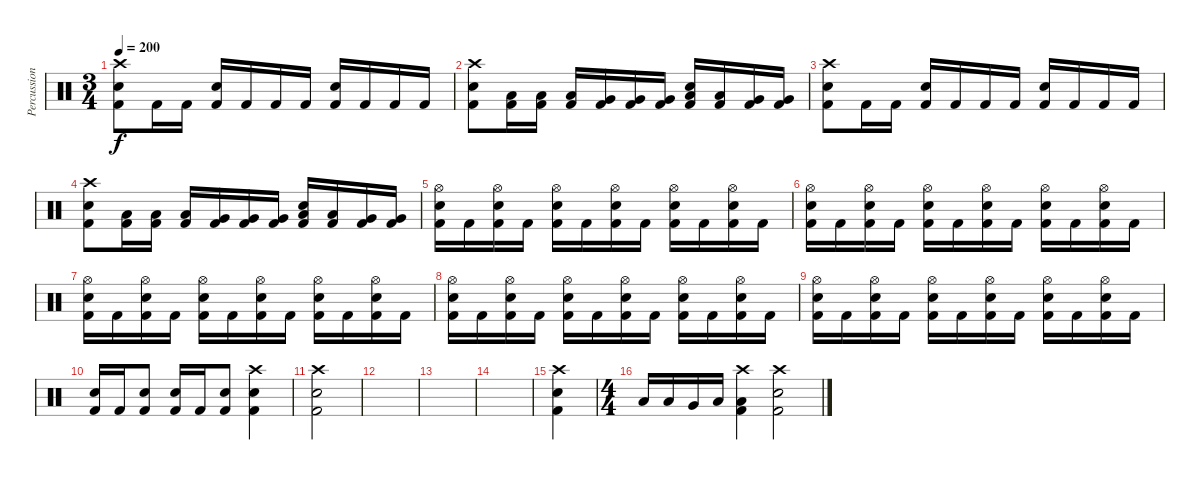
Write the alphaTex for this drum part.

\track ("Percussion" "Percussion") {instrument percussion}
\staff {score}
\articulation defaults
\ts (3 4)
\tempo 200
\clef neutral
\ks c
("Crash high (hit)" "Snare (hit) 2" "Kick (hit) 2").8{dy f} "Kick (hit) 2".16 "Kick (hit) 2".16 ("Snare (hit) 2" "Kick (hit) 2").16 "Kick (hit) 2".16 "Kick (hit) 2".16 "Kick (hit) 2".16 ("Snare (hit) 2" "Kick (hit) 2").16 "Kick (hit) 2".16 "Kick (hit) 2".16 "Kick (hit) 2".16 |
("Crash high (hit)" "Snare (hit) 2" "Kick (hit) 2").8 ("Low Tom (hit)" "Kick (hit) 2").16 ("Low Tom (hit)" "Kick (hit) 2").16 ("Low Tom (hit)" "Kick (hit) 2").16 ("Very Low Tom (hit)" "Kick (hit) 2").16 ("Very Low Tom (hit)" "Kick (hit) 2").16 ("Very Low Tom (hit)" "Kick (hit) 2").16 ("Low Tom (hit)" "Snare (hit) 2" "Kick (hit) 2").16 ("Low Tom (hit)" "Kick (hit) 2").16 ("Very Low Tom (hit)" "Kick (hit) 2").16 ("Very Low Tom (hit)" "Kick (hit) 2").16 |
("Crash high (hit)" "Snare (hit) 2" "Kick (hit) 2").8 "Kick (hit) 2".16 "Kick (hit) 2".16 ("Snare (hit) 2" "Kick (hit) 2").16 "Kick (hit) 2".16 "Kick (hit) 2".16 "Kick (hit) 2".16 ("Snare (hit) 2" "Kick (hit) 2").16 "Kick (hit) 2".16 "Kick (hit) 2".16 "Kick (hit) 2".16 |
("Crash high (hit)" "Snare (hit) 2" "Kick (hit) 2").8 ("Low Tom (hit)" "Kick (hit) 2").16 ("Low Tom (hit)" "Kick (hit) 2").16 ("Low Tom (hit)" "Kick (hit) 2").16 ("Very Low Tom (hit)" "Kick (hit) 2").16 ("Very Low Tom (hit)" "Kick (hit) 2").16 ("Very Low Tom (hit)" "Kick (hit) 2").16 ("Low Tom (hit)" "Snare (hit) 2" "Kick (hit) 2").16 ("Low Tom (hit)" "Kick (hit) 2").16 ("Very Low Tom (hit)" "Kick (hit) 2").16 ("Very Low Tom (hit)" "Kick (hit) 2").16 |
("Hi-Hat (open)" "Snare (hit) 2" "Kick (hit) 2").16 "Kick (hit) 2".16 ("Hi-Hat (open)" "Snare (hit) 2" "Kick (hit) 2").16 "Kick (hit) 2".16 ("Hi-Hat (open)" "Snare (hit) 2" "Kick (hit) 2").16 "Kick (hit) 2".16 ("Hi-Hat (open)" "Snare (hit) 2" "Kick (hit) 2").16 "Kick (hit) 2".16 ("Hi-Hat (open)" "Snare (hit) 2" "Kick (hit) 2").16 "Kick (hit) 2".16 ("Hi-Hat (open)" "Snare (hit) 2" "Kick (hit) 2").16 "Kick (hit) 2".16 |
("Hi-Hat (open)" "Snare (hit) 2" "Kick (hit) 2").16 "Kick (hit) 2".16 ("Hi-Hat (open)" "Snare (hit) 2" "Kick (hit) 2").16 "Kick (hit) 2".16 ("Hi-Hat (open)" "Snare (hit) 2" "Kick (hit) 2").16 "Kick (hit) 2".16 ("Hi-Hat (open)" "Snare (hit) 2" "Kick (hit) 2").16 "Kick (hit) 2".16 ("Hi-Hat (open)" "Snare (hit) 2" "Kick (hit) 2").16 "Kick (hit) 2".16 ("Hi-Hat (open)" "Snare (hit) 2" "Kick (hit) 2").16 "Kick (hit) 2".16 |
("Hi-Hat (open)" "Snare (hit) 2" "Kick (hit) 2").16 "Kick (hit) 2".16 ("Hi-Hat (open)" "Snare (hit) 2" "Kick (hit) 2").16 "Kick (hit) 2".16 ("Hi-Hat (open)" "Snare (hit) 2" "Kick (hit) 2").16 "Kick (hit) 2".16 ("Hi-Hat (open)" "Snare (hit) 2" "Kick (hit) 2").16 "Kick (hit) 2".16 ("Hi-Hat (open)" "Snare (hit) 2" "Kick (hit) 2").16 "Kick (hit) 2".16 ("Hi-Hat (open)" "Snare (hit) 2" "Kick (hit) 2").16 "Kick (hit) 2".16 |
("Hi-Hat (open)" "Snare (hit) 2" "Kick (hit) 2").16 "Kick (hit) 2".16 ("Hi-Hat (open)" "Snare (hit) 2" "Kick (hit) 2").16 "Kick (hit) 2".16 ("Hi-Hat (open)" "Snare (hit) 2" "Kick (hit) 2").16 "Kick (hit) 2".16 ("Hi-Hat (open)" "Snare (hit) 2" "Kick (hit) 2").16 "Kick (hit) 2".16 ("Hi-Hat (open)" "Snare (hit) 2" "Kick (hit) 2").16 "Kick (hit) 2".16 ("Hi-Hat (open)" "Snare (hit) 2" "Kick (hit) 2").16 "Kick (hit) 2".16 |
("Hi-Hat (open)" "Snare (hit) 2" "Kick (hit) 2").16 "Kick (hit) 2".16 ("Hi-Hat (open)" "Snare (hit) 2" "Kick (hit) 2").16 "Kick (hit) 2".16 ("Hi-Hat (open)" "Snare (hit) 2" "Kick (hit) 2").16 "Kick (hit) 2".16 ("Hi-Hat (open)" "Snare (hit) 2" "Kick (hit) 2").16 "Kick (hit) 2".16 ("Hi-Hat (open)" "Snare (hit) 2" "Kick (hit) 2").16 "Kick (hit) 2".16 ("Hi-Hat (open)" "Snare (hit) 2" "Kick (hit) 2").16 "Kick (hit) 2".16 |
("Snare (hit) 2" "Kick (hit) 2").16 "Kick (hit) 2".16 ("Snare (hit) 2" "Kick (hit) 2").8 ("Snare (hit) 2" "Kick (hit) 2").16 "Kick (hit) 2".16 ("Snare (hit) 2" "Kick (hit) 2").8 ("Crash high (hit)" "Snare (hit) 2" "Kick (hit) 2").4 |
("Crash high (hit)" "Snare (hit) 2" "Kick (hit) 2").2 |
|
|
|
("Crash high (hit)" "Snare (hit) 2" "Kick (hit) 2").4 |
\ts (4 4)
"Low Tom (hit)".16 "Low Tom (hit)".16 "Very Low Tom (hit)".16 "Low Floor Tom (hit)".16 ("Crash high (hit)" "Low Tom (hit)" "Kick (hit) 2").4 ("Crash high (hit)" "Snare (hit) 2" "Kick (hit) 2").2
